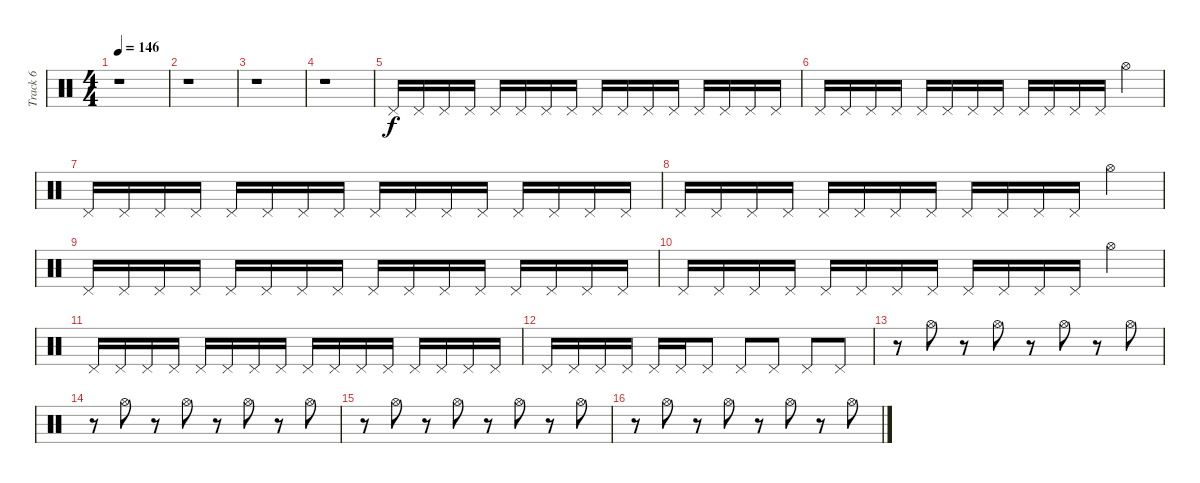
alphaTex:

\track ("Track 6" "Track 6") {instrument percussion}
\staff {score}
\articulation defaults
\ts (4 4)
\tempo 146
\clef neutral
\ks c
r.1{dy f} |
r.1 |
r.1 |
r.1 |
"Pedal Hi-Hat (hit)".16 "Pedal Hi-Hat (hit)".16 "Pedal Hi-Hat (hit)".16 "Pedal Hi-Hat (hit)".16 "Pedal Hi-Hat (hit)".16 "Pedal Hi-Hat (hit)".16 "Pedal Hi-Hat (hit)".16 "Pedal Hi-Hat (hit)".16 "Pedal Hi-Hat (hit)".16 "Pedal Hi-Hat (hit)".16 "Pedal Hi-Hat (hit)".16 "Pedal Hi-Hat (hit)".16 "Pedal Hi-Hat (hit)".16 "Pedal Hi-Hat (hit)".16 "Pedal Hi-Hat (hit)".16 "Pedal Hi-Hat (hit)".16 |
"Pedal Hi-Hat (hit)".16 "Pedal Hi-Hat (hit)".16 "Pedal Hi-Hat (hit)".16 "Pedal Hi-Hat (hit)".16 "Pedal Hi-Hat (hit)".16 "Pedal Hi-Hat (hit)".16 "Pedal Hi-Hat (hit)".16 "Pedal Hi-Hat (hit)".16 "Pedal Hi-Hat (hit)".16 "Pedal Hi-Hat (hit)".16 "Pedal Hi-Hat (hit)".16 "Pedal Hi-Hat (hit)".16 "Hi-Hat (open)".4 |
"Pedal Hi-Hat (hit)".16 "Pedal Hi-Hat (hit)".16 "Pedal Hi-Hat (hit)".16 "Pedal Hi-Hat (hit)".16 "Pedal Hi-Hat (hit)".16 "Pedal Hi-Hat (hit)".16 "Pedal Hi-Hat (hit)".16 "Pedal Hi-Hat (hit)".16 "Pedal Hi-Hat (hit)".16 "Pedal Hi-Hat (hit)".16 "Pedal Hi-Hat (hit)".16 "Pedal Hi-Hat (hit)".16 "Pedal Hi-Hat (hit)".16 "Pedal Hi-Hat (hit)".16 "Pedal Hi-Hat (hit)".16 "Pedal Hi-Hat (hit)".16 |
"Pedal Hi-Hat (hit)".16 "Pedal Hi-Hat (hit)".16 "Pedal Hi-Hat (hit)".16 "Pedal Hi-Hat (hit)".16 "Pedal Hi-Hat (hit)".16 "Pedal Hi-Hat (hit)".16 "Pedal Hi-Hat (hit)".16 "Pedal Hi-Hat (hit)".16 "Pedal Hi-Hat (hit)".16 "Pedal Hi-Hat (hit)".16 "Pedal Hi-Hat (hit)".16 "Pedal Hi-Hat (hit)".16 "Hi-Hat (open)".4 |
"Pedal Hi-Hat (hit)".16 "Pedal Hi-Hat (hit)".16 "Pedal Hi-Hat (hit)".16 "Pedal Hi-Hat (hit)".16 "Pedal Hi-Hat (hit)".16 "Pedal Hi-Hat (hit)".16 "Pedal Hi-Hat (hit)".16 "Pedal Hi-Hat (hit)".16 "Pedal Hi-Hat (hit)".16 "Pedal Hi-Hat (hit)".16 "Pedal Hi-Hat (hit)".16 "Pedal Hi-Hat (hit)".16 "Pedal Hi-Hat (hit)".16 "Pedal Hi-Hat (hit)".16 "Pedal Hi-Hat (hit)".16 "Pedal Hi-Hat (hit)".16 |
"Pedal Hi-Hat (hit)".16 "Pedal Hi-Hat (hit)".16 "Pedal Hi-Hat (hit)".16 "Pedal Hi-Hat (hit)".16 "Pedal Hi-Hat (hit)".16 "Pedal Hi-Hat (hit)".16 "Pedal Hi-Hat (hit)".16 "Pedal Hi-Hat (hit)".16 "Pedal Hi-Hat (hit)".16 "Pedal Hi-Hat (hit)".16 "Pedal Hi-Hat (hit)".16 "Pedal Hi-Hat (hit)".16 "Hi-Hat (open)".4 |
"Pedal Hi-Hat (hit)".16 "Pedal Hi-Hat (hit)".16 "Pedal Hi-Hat (hit)".16 "Pedal Hi-Hat (hit)".16 "Pedal Hi-Hat (hit)".16 "Pedal Hi-Hat (hit)".16 "Pedal Hi-Hat (hit)".16 "Pedal Hi-Hat (hit)".16 "Pedal Hi-Hat (hit)".16 "Pedal Hi-Hat (hit)".16 "Pedal Hi-Hat (hit)".16 "Pedal Hi-Hat (hit)".16 "Pedal Hi-Hat (hit)".16 "Pedal Hi-Hat (hit)".16 "Pedal Hi-Hat (hit)".16 "Pedal Hi-Hat (hit)".16 |
"Pedal Hi-Hat (hit)".16 "Pedal Hi-Hat (hit)".16 "Pedal Hi-Hat (hit)".16 "Pedal Hi-Hat (hit)".16 "Pedal Hi-Hat (hit)".16 "Pedal Hi-Hat (hit)".16 "Pedal Hi-Hat (hit)".8 "Pedal Hi-Hat (hit)".8 "Pedal Hi-Hat (hit)".8 "Pedal Hi-Hat (hit)".8 "Pedal Hi-Hat (hit)".8 |
r.8 "Hi-Hat (open)".8 r.8 "Hi-Hat (open)".8 r.8 "Hi-Hat (open)".8 r.8 "Hi-Hat (open)".8 |
r.8 "Hi-Hat (open)".8 r.8 "Hi-Hat (open)".8 r.8 "Hi-Hat (open)".8 r.8 "Hi-Hat (open)".8 |
r.8 "Hi-Hat (open)".8 r.8 "Hi-Hat (open)".8 r.8 "Hi-Hat (open)".8 r.8 "Hi-Hat (open)".8 |
r.8 "Hi-Hat (open)".8 r.8 "Hi-Hat (open)".8 r.8 "Hi-Hat (open)".8 r.8 "Hi-Hat (open)".8
